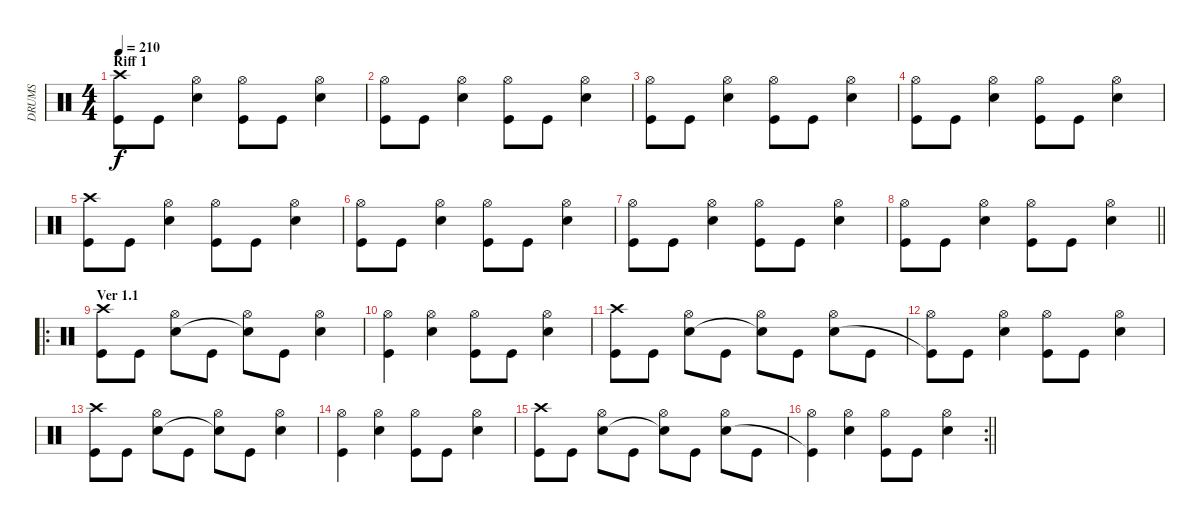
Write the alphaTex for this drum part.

\track ("DRUMS" "DRUMS") {instrument percussion}
\staff {score}
\articulation defaults
\ts (4 4)
\section ("" "Riff 1")
\tempo 210
\clef neutral
\ks c
("Crash high (hit)" "Kick (hit)").8{dy f} "Kick (hit)".8 ("Hi-Hat (open)" "Snare (hit) 2").4 ("Hi-Hat (open)" "Kick (hit)").8 "Kick (hit)".8 ("Hi-Hat (open)" "Snare (hit) 2").4 |
("Hi-Hat (open)" "Kick (hit)").8 "Kick (hit)".8 ("Hi-Hat (open)" "Snare (hit) 2").4 ("Hi-Hat (open)" "Kick (hit)").8 "Kick (hit)".8 ("Hi-Hat (open)" "Snare (hit) 2").4 |
("Hi-Hat (open)" "Kick (hit)").8 "Kick (hit)".8 ("Hi-Hat (open)" "Snare (hit) 2").4 ("Hi-Hat (open)" "Kick (hit)").8 "Kick (hit)".8 ("Hi-Hat (open)" "Snare (hit) 2").4 |
("Hi-Hat (open)" "Kick (hit)").8 "Kick (hit)".8 ("Hi-Hat (open)" "Snare (hit) 2").4 ("Hi-Hat (open)" "Kick (hit)").8 "Kick (hit)".8 ("Hi-Hat (open)" "Snare (hit) 2").4 |
("Crash high (hit)" "Kick (hit)").8 "Kick (hit)".8 ("Hi-Hat (open)" "Snare (hit) 2").4 ("Hi-Hat (open)" "Kick (hit)").8 "Kick (hit)".8 ("Hi-Hat (open)" "Snare (hit) 2").4 |
("Hi-Hat (open)" "Kick (hit)").8 "Kick (hit)".8 ("Hi-Hat (open)" "Snare (hit) 2").4 ("Hi-Hat (open)" "Kick (hit)").8 "Kick (hit)".8 ("Hi-Hat (open)" "Snare (hit) 2").4 |
("Hi-Hat (open)" "Kick (hit)").8 "Kick (hit)".8 ("Hi-Hat (open)" "Snare (hit) 2").4 ("Hi-Hat (open)" "Kick (hit)").8 "Kick (hit)".8 ("Hi-Hat (open)" "Snare (hit) 2").4 |
\barLineRight lightlight
("Hi-Hat (open)" "Kick (hit)").8 "Kick (hit)".8 ("Hi-Hat (open)" "Snare (hit) 2").4 ("Hi-Hat (open)" "Kick (hit)").8 "Kick (hit)".8 ("Hi-Hat (open)" "Snare (hit) 2").4 |
\ro
\section ("" "Ver 1.1")
("Crash high (hit)" "Kick (hit)").8 "Kick (hit)".8 ("Hi-Hat (open)" "Snare (hit) 2").8 "Kick (hit)".8 ("Hi-Hat (open)" "Snare (hit)"{t}).8 "Kick (hit)".8 ("Hi-Hat (open)" "Snare (hit) 2").4 |
("Hi-Hat (open)" "Kick (hit)").4 ("Hi-Hat (open)" "Snare (hit) 2").4 ("Hi-Hat (open)" "Kick (hit)").8 "Kick (hit)".8 ("Hi-Hat (open)" "Snare (hit) 2").4 |
("Crash high (hit)" "Kick (hit)").8 "Kick (hit)".8 ("Hi-Hat (open)" "Snare (hit) 2").8 "Kick (hit)".8 ("Hi-Hat (open)" "Snare (hit)"{t}).8 "Kick (hit)".8 ("Hi-Hat (open)" "Snare (hit) 2").8 "Kick (hit)".8 |
("Hi-Hat (open)" "Kick (hit)"{t}).8 "Kick (hit)".8 ("Hi-Hat (open)" "Snare (hit) 2").4 ("Hi-Hat (open)" "Kick (hit)").8 "Kick (hit)".8 ("Hi-Hat (open)" "Snare (hit) 2").4 |
("Crash high (hit)" "Kick (hit)").8 "Kick (hit)".8 ("Hi-Hat (open)" "Snare (hit) 2").8 "Kick (hit)".8 ("Hi-Hat (open)" "Snare (hit)"{t}).8 "Kick (hit)".8 ("Hi-Hat (open)" "Snare (hit) 2").4 |
("Hi-Hat (open)" "Kick (hit)").4 ("Hi-Hat (open)" "Snare (hit) 2").4 ("Hi-Hat (open)" "Kick (hit)").8 "Kick (hit)".8 ("Hi-Hat (open)" "Snare (hit) 2").4 |
("Crash high (hit)" "Kick (hit)").8 "Kick (hit)".8 ("Hi-Hat (open)" "Snare (hit) 2").8 "Kick (hit)".8 ("Hi-Hat (open)" "Snare (hit)"{t}).8 "Kick (hit)".8 ("Hi-Hat (open)" "Snare (hit) 2").8 "Kick (hit)".8 |
\rc 2
\barLineRight lightlight
("Hi-Hat (open)" "Kick (hit)"{t}).4 ("Hi-Hat (open)" "Snare (hit) 2").4 ("Hi-Hat (open)" "Kick (hit)").8 "Kick (hit)".8 ("Hi-Hat (open)" "Snare (hit) 2").4
